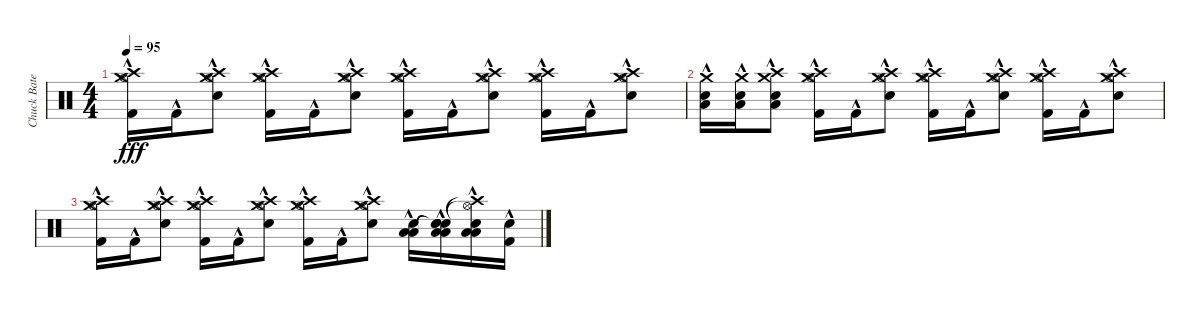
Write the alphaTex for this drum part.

\track ("Chuck Bateria" "Chuck Bate") {instrument percussion}
\staff {score}
\articulation defaults
\ts (4 4)
\tempo 95
\clef neutral
\ks c
("Crash high (hit)" "Hi-Hat (open)" "Crash medium (hit)" "Kick (hit) 2"{hac}).16{dy fff} "Kick (hit) 2"{hac}.16 ("Crash high (hit)" "Hi-Hat (open)" "Crash medium (hit)" "Electric Snare (hit)"{hac}).8 ("Crash high (hit)" "Hi-Hat (open)" "Crash medium (hit)" "Kick (hit) 2"{hac}).16 "Kick (hit) 2"{hac}.16 ("Crash high (hit)" "Hi-Hat (open)" "Crash medium (hit)" "Electric Snare (hit)"{hac}).8 ("Crash high (hit)" "Hi-Hat (open)" "Crash medium (hit)" "Kick (hit) 2"{hac}).16 "Kick (hit) 2"{hac}.16 ("Crash high (hit)" "Hi-Hat (open)" "Crash medium (hit)" "Electric Snare (hit)"{hac}).8 ("Crash high (hit)" "Hi-Hat (open)" "Crash medium (hit)" "Kick (hit) 2"{hac}).16 "Kick (hit) 2"{hac}.16 ("Crash high (hit)"{hac} "Hi-Hat (open)"{hac} "Crash medium (hit)"{hac} "Electric Snare (hit)"{hac}).8 |
("Crash medium (hit)" "Electric Snare (hit)"{hac} "Low Floor Tom (hit)"{hac}).16 ("Crash medium (hit)" "Electric Snare (hit)"{hac} "Low Floor Tom (hit)"{hac}).16 ("Crash high (hit)" "Crash medium (hit)" "Electric Snare (hit)"{hac} "Low Floor Tom (hit)"{hac}).8 ("Crash high (hit)" "Hi-Hat (open)" "Crash medium (hit)" "Kick (hit) 2"{hac}).16 "Kick (hit) 2"{hac}.16 ("Crash high (hit)" "Hi-Hat (open)" "Crash medium (hit)" "Electric Snare (hit)"{hac}).8 ("Crash high (hit)" "Hi-Hat (open)" "Crash medium (hit)" "Kick (hit) 2"{hac}).16 "Kick (hit) 2"{hac}.16 ("Crash high (hit)" "Hi-Hat (open)" "Crash medium (hit)" "Electric Snare (hit)"{hac}).8 ("Crash high (hit)" "Hi-Hat (open)" "Crash medium (hit)" "Kick (hit) 2"{hac}).16 "Kick (hit) 2"{hac}.16 ("Crash high (hit)" "Hi-Hat (open)" "Crash medium (hit)" "Electric Snare (hit)"{hac}).8 |
("Crash high (hit)" "Hi-Hat (open)" "Crash medium (hit)" "Kick (hit) 2"{hac}).16 "Kick (hit) 2"{hac}.16 ("Crash high (hit)" "Hi-Hat (open)" "Crash medium (hit)" "Electric Snare (hit)"{hac}).8 ("Crash high (hit)" "Hi-Hat (open)" "Crash medium (hit)" "Kick (hit) 2"{hac}).16 "Kick (hit) 2"{hac}.16 ("Crash high (hit)" "Hi-Hat (open)" "Crash medium (hit)" "Electric Snare (hit)"{hac}).8 ("Crash high (hit)" "Hi-Hat (open)" "Crash medium (hit)" "Kick (hit) 2"{hac}).16 "Kick (hit) 2"{hac}.16 ("Crash high (hit)" "Hi-Hat (open)" "Crash medium (hit)" "Electric Snare (hit)"{hac}).8 ("Low Floor Tom (hit)"{hac} "Low Floor Tom (hit)"{hac} "Electric Snare (hit)").16 ("Snare (hit)"{t} "Snare (hit)"{t} "Low Floor Tom (hit)"{hac} "Low Floor Tom (hit)"{hac} "Electric Snare (hit)"{hac}).16 ("Crash high (hit)"{t} "Hi-Hat (open)"{t} "Low Floor Tom (hit)"{hac} "Low Floor Tom (hit)"{hac} "Electric Snare (hit)"{hac}).16 ("Electric Snare (hit)"{hac} "Kick (hit) 2"{hac}).16
